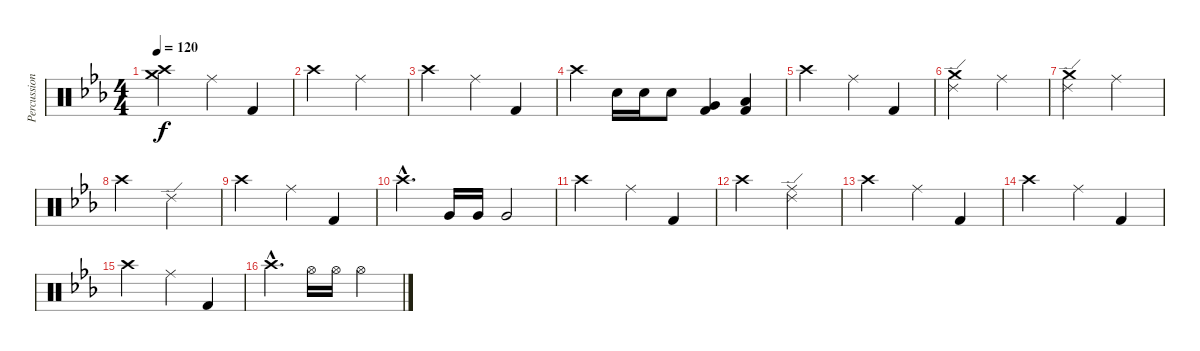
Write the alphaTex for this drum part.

\track ("Percussion" "Percussion") {instrument percussion}
\staff {score}
\articulation defaults
\ts (4 4)
\tempo 120
\clef neutral
\ks eb
("Crash high (hit)" "Crash medium (hit)").2{dy f} "Ride (middle)".4 "Kick (hit) 2".4 |
"Crash high (hit)".2 "Ride (middle)".2 |
"Crash high (hit)".2 "Ride (middle)".4 "Kick (hit) 2".4 |
"Crash high (hit)".4 "Electric Snare (hit)".16 "Electric Snare (hit)".16 "Electric Snare (hit)".8 ("Very Low Tom (hit)" "Kick (hit) 2").4 ("Low Floor Tom (hit)" "Kick (hit) 2").4 |
"Crash high (hit)".2 "Ride (middle)".4 "Kick (hit) 2".4 |
("Ride (edge) 2" "Crash medium (hit)").2 "Ride (middle)".2 |
("Ride (edge) 2" "Crash medium (hit)").2 "Ride (middle)".2 |
"Crash high (hit)".2 "Ride (edge) 2".2 |
"Crash high (hit)".2 "Ride (middle)".4 "Kick (hit) 2".4 |
"Crash high (hit)"{hac}.4{d} "Very Low Tom (hit)".16 "Very Low Tom (hit)".16 "Very Low Tom (hit)".2 |
"Crash high (hit)".2 "Ride (middle)".4 "Kick (hit) 2".4 |
"Crash high (hit)".2 ("Ride (middle)" "Ride (edge) 2").2 |
"Crash high (hit)".2 "Ride (middle)".4 "Kick (hit) 2".4 |
"Crash high (hit)".2 "Ride (middle)".4 "Kick (hit) 2".4 |
"Crash high (hit)".2 "Ride (middle)".4 "Kick (hit) 2".4 |
"Crash high (hit)"{hac}.4{d} "Hi-Hat (open)".16 "Hi-Hat (open)".16 "Hi-Hat (open)".2
